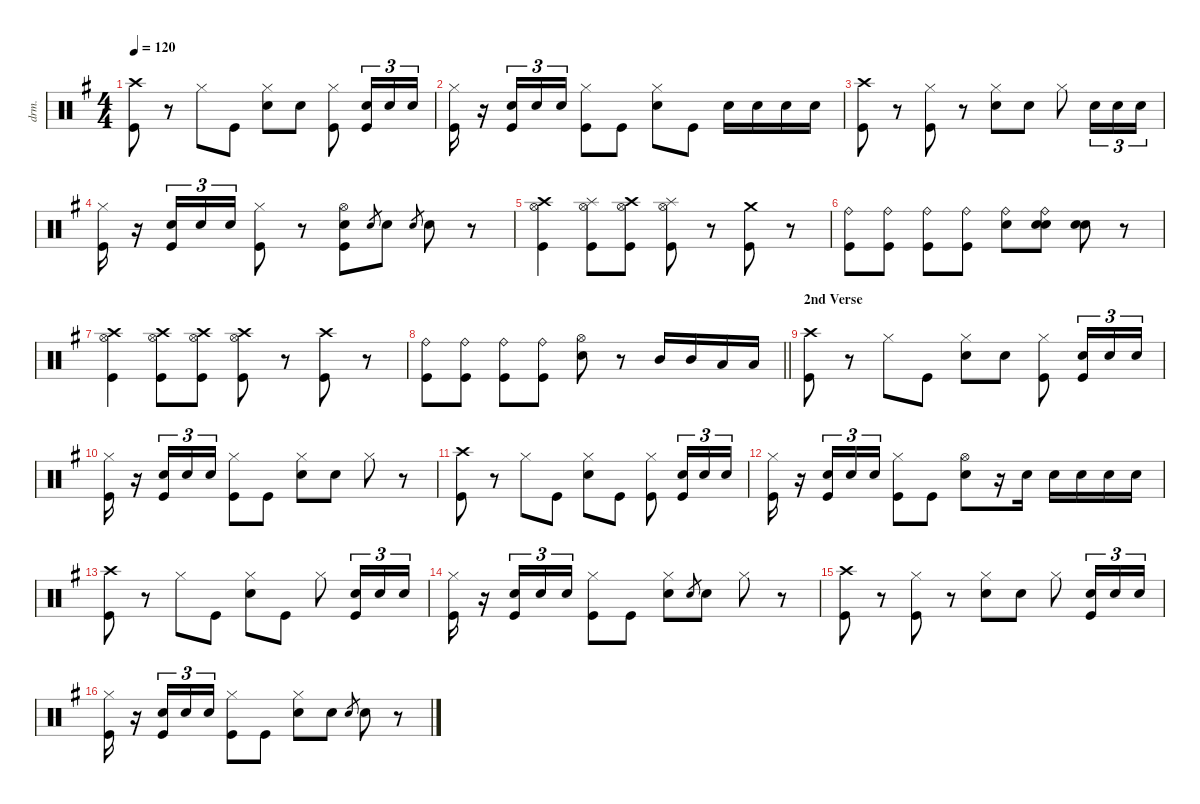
\defaultSystemsLayout 4
\hideDynamics
\bracketExtendMode nobrackets
\track ("Drums (Bill Ward)" "drm.") {instrument percussion}
\staff {score}
\articulation defaults
\ts (4 4)
\tempo 120
\clef neutral
\ks g
("Crash high (hit)"{acc forcenatural} "Kick (hit)"{acc forcenatural}).8{dy f} r.8 "Hi-Hat (closed)"{acc forcenatural}.8 "Kick (hit)"{acc forcenatural}.8 ("Hi-Hat (closed)"{acc forcenatural} "Snare (hit) 2"{acc forcenatural}).8 "Snare (hit) 2"{acc forcenatural}.8 ("Hi-Hat (closed)"{acc forcenatural} "Kick (hit)"{acc forcenatural}).8 ("Snare (hit) 2"{acc forcenatural} "Kick (hit)"{acc forcenatural}).16{tu (3 2) dy p} "Snare (hit) 2"{acc forcenatural}.16{tu (3 2)} "Snare (hit) 2"{acc forcenatural}.16{tu (3 2)} |
("Hi-Hat (closed)"{acc forcenatural} "Kick (hit)"{acc forcenatural}).16{dy f} r.16 ("Snare (hit) 2"{acc forcenatural} "Kick (hit)"{acc forcenatural}).16{tu (3 2) dy p} "Snare (hit) 2"{acc forcenatural}.16{tu (3 2)} "Snare (hit) 2"{acc forcenatural}.16{tu (3 2)} ("Hi-Hat (closed)"{acc forcenatural} "Kick (hit)"{acc forcenatural}).8{dy f} "Kick (hit)"{acc forcenatural}.8 ("Hi-Hat (closed)"{acc forcenatural} "Snare (hit) 2"{acc forcenatural}).8 "Kick (hit)"{acc forcenatural}.8 "Snare (hit) 2"{acc forcenatural}.16 "Snare (hit) 2"{acc forcenatural}.16 "Snare (hit) 2"{acc forcenatural}.16 "Snare (hit) 2"{acc forcenatural}.16 |
("Crash high (hit)"{acc forcenatural} "Kick (hit)"{acc forcenatural}).8 r.8 ("Hi-Hat (closed)"{acc forcenatural} "Kick (hit)"{acc forcenatural}).8 r.8 ("Hi-Hat (closed)"{acc forcenatural} "Snare (hit) 2"{acc forcenatural}).8 "Snare (hit) 2"{acc forcenatural}.8 "Hi-Hat (closed)"{acc forcenatural}.8 "Snare (hit) 2"{acc forcenatural}.16{tu (3 2) dy p} "Snare (hit) 2"{acc forcenatural}.16{tu (3 2)} "Snare (hit) 2"{acc forcenatural}.16{tu (3 2)} |
("Hi-Hat (closed)"{acc forcenatural} "Kick (hit)"{acc forcenatural}).16{dy f} r.16 ("Snare (hit) 2"{acc forcenatural} "Kick (hit)"{acc forcenatural}).16{tu (3 2) dy p} "Snare (hit) 2"{acc forcenatural}.16{tu (3 2)} "Snare (hit) 2"{acc forcenatural}.16{tu (3 2)} ("Hi-Hat (closed)"{acc forcenatural} "Kick (hit)"{acc forcenatural}).8{dy f} r.8 ("Hi-Hat (open)"{acc forcenatural} "Snare (hit) 2"{acc forcenatural} "Kick (hit)"{acc forcenatural}).8 "Electric Snare (hit)"{acc forcenatural}.8{gr dy mf} "Snare (hit) 2"{acc forcenatural}.8{dy f} "Electric Snare (hit)"{acc forcenatural}.8{gr dy mf} "Snare (hit) 2"{acc forcenatural}.8{dy f} r.8 |
("Crash high (hit)"{acc forcenatural} "Hi-Hat (open)"{acc forcenatural} "Kick (hit)"{acc forcenatural}).4 ("Splash (hit)"{acc forcenatural} "Hi-Hat (open)"{acc forcenatural} "Kick (hit)"{acc forcenatural}).8 ("Crash high (hit)"{acc forcenatural} "Hi-Hat (open)"{acc forcenatural} "Kick (hit)"{acc forcenatural}).8 ("Splash (hit)"{acc forcenatural} "Hi-Hat (open)"{acc forcenatural} "Kick (hit)"{acc forcenatural}).8 r.8 ("Crash medium (hit)"{acc forcenatural} "Kick (hit)"{acc forcenatural}).8 r.8 |
("Ride (bell)"{acc forcenatural} "Kick (hit)"{acc forcenatural}).8 ("Ride (bell)"{acc forcenatural} "Kick (hit)"{acc forcenatural}).8 ("Ride (bell)"{acc forcenatural} "Kick (hit)"{acc forcenatural}).8 ("Ride (bell)"{acc forcenatural} "Kick (hit)"{acc forcenatural}).8 ("Ride (bell)"{acc forcenatural} "Snare (hit) 2"{acc forcenatural}).8 ("Ride (bell)"{acc forcenatural} "Snare (hit) 2"{acc forcenatural} "Snare (hit) 2"{acc forcenatural}).8 ("Snare (hit) 2"{acc forcenatural} "Snare (hit) 2"{acc forcenatural}).8{dy ff} r.8 |
("Crash high (hit)"{acc forcenatural} "Hi-Hat (open)"{acc forcenatural} "Kick (hit)"{acc forcenatural}).4{dy f} ("Crash high (hit)"{acc forcenatural} "Hi-Hat (open)"{acc forcenatural} "Kick (hit)"{acc forcenatural}).8 ("Crash high (hit)"{acc forcenatural} "Hi-Hat (open)"{acc forcenatural} "Kick (hit)"{acc forcenatural}).8 ("Crash high (hit)"{acc forcenatural} "Hi-Hat (open)"{acc forcenatural} "Kick (hit)"{acc forcenatural}).8 r.8 ("Crash high (hit)"{acc forcenatural} "Kick (hit)"{acc forcenatural}).8 r.8 |
\barLineRight lightlight
("Ride (bell)"{acc forcenatural} "Kick (hit)"{acc forcenatural}).8 ("Ride (bell)"{acc forcenatural} "Kick (hit)"{acc forcenatural}).8 ("Ride (bell)"{acc forcenatural} "Kick (hit)"{acc forcenatural}).8 ("Ride (bell)"{acc forcenatural} "Kick (hit)"{acc forcenatural}).8 ("Hi-Hat (open)"{acc forcenatural} "Snare (hit) 2"{acc forcenatural}).8 r.8 "Mid Tom (hit)"{acc forcenatural}.16 "Mid Tom (hit)"{acc forcenatural}.16 "Low Tom (hit)"{acc forcenatural}.16 "Low Tom (hit)"{acc forcenatural}.16 |
\section ("" "2nd Verse")
("Crash high (hit)"{acc forcenatural} "Kick (hit)"{acc forcenatural}).8 r.8 "Hi-Hat (closed)"{acc forcenatural}.8 "Kick (hit)"{acc forcenatural}.8 ("Hi-Hat (closed)"{acc forcenatural} "Snare (hit) 2"{acc forcenatural}).8 "Snare (hit) 2"{acc forcenatural}.8 ("Hi-Hat (closed)"{acc forcenatural} "Kick (hit)"{acc forcenatural}).8 ("Snare (hit) 2"{acc forcenatural} "Kick (hit)"{acc forcenatural}).16{tu (3 2) dy p} "Snare (hit) 2"{acc forcenatural}.16{tu (3 2)} "Snare (hit) 2"{acc forcenatural}.16{tu (3 2)} |
("Hi-Hat (closed)"{acc forcenatural} "Kick (hit)"{acc forcenatural}).16{dy f} r.16 ("Snare (hit) 2"{acc forcenatural} "Kick (hit)"{acc forcenatural}).16{tu (3 2) dy p} "Snare (hit) 2"{acc forcenatural}.16{tu (3 2)} "Snare (hit) 2"{acc forcenatural}.16{tu (3 2)} ("Hi-Hat (closed)"{acc forcenatural} "Kick (hit)"{acc forcenatural}).8{dy f} "Kick (hit)"{acc forcenatural}.8 ("Hi-Hat (closed)"{acc forcenatural} "Snare (hit) 2"{acc forcenatural}).8 "Snare (hit) 2"{acc forcenatural}.8 "Hi-Hat (closed)"{acc forcenatural}.8 r.8 |
("Crash high (hit)"{acc forcenatural} "Kick (hit)"{acc forcenatural}).8 r.8 "Hi-Hat (closed)"{acc forcenatural}.8 "Kick (hit)"{acc forcenatural}.8 ("Hi-Hat (closed)"{acc forcenatural} "Snare (hit) 2"{acc forcenatural}).8 "Kick (hit)"{acc forcenatural}.8 ("Hi-Hat (closed)"{acc forcenatural} "Kick (hit)"{acc forcenatural}).8 ("Snare (hit) 2"{acc forcenatural} "Kick (hit)"{acc forcenatural}).16{tu (3 2) dy p} "Snare (hit) 2"{acc forcenatural}.16{tu (3 2)} "Snare (hit) 2"{acc forcenatural}.16{tu (3 2)} |
("Hi-Hat (closed)"{acc forcenatural} "Kick (hit)"{acc forcenatural}).16{dy f} r.16 ("Snare (hit) 2"{acc forcenatural} "Kick (hit)"{acc forcenatural}).16{tu (3 2) dy p} "Snare (hit) 2"{acc forcenatural}.16{tu (3 2)} "Snare (hit) 2"{acc forcenatural}.16{tu (3 2)} ("Hi-Hat (closed)"{acc forcenatural} "Kick (hit)"{acc forcenatural}).8{dy f} "Kick (hit)"{acc forcenatural}.8 ("Hi-Hat (open)"{acc forcenatural} "Snare (hit) 2"{acc forcenatural}).8 r.16 "Snare (hit) 2"{acc forcenatural}.16 "Snare (hit) 2"{acc forcenatural}.16 "Snare (hit) 2"{acc forcenatural}.16 "Snare (hit) 2"{acc forcenatural}.16 "Snare (hit) 2"{acc forcenatural}.16 |
("Crash high (hit)"{acc forcenatural} "Kick (hit)"{acc forcenatural}).8 r.8 "Hi-Hat (closed)"{acc forcenatural}.8 "Kick (hit)"{acc forcenatural}.8 ("Hi-Hat (closed)"{acc forcenatural} "Snare (hit) 2"{acc forcenatural}).8 "Kick (hit)"{acc forcenatural}.8 "Hi-Hat (closed)"{acc forcenatural}.8 ("Snare (hit) 2"{acc forcenatural} "Kick (hit)"{acc forcenatural}).16{tu (3 2) dy p} "Snare (hit) 2"{acc forcenatural}.16{tu (3 2)} "Snare (hit) 2"{acc forcenatural}.16{tu (3 2)} |
("Hi-Hat (closed)"{acc forcenatural} "Kick (hit)"{acc forcenatural}).16{dy f} r.16 ("Snare (hit) 2"{acc forcenatural} "Kick (hit)"{acc forcenatural}).16{tu (3 2) dy p} "Snare (hit) 2"{acc forcenatural}.16{tu (3 2)} "Snare (hit) 2"{acc forcenatural}.16{tu (3 2)} ("Hi-Hat (closed)"{acc forcenatural} "Kick (hit)"{acc forcenatural}).8{dy f} "Kick (hit)"{acc forcenatural}.8 ("Hi-Hat (closed)"{acc forcenatural} "Snare (hit) 2"{acc forcenatural}).8 "Electric Snare (hit)"{acc forcenatural}.8{gr dy mf} "Snare (hit) 2"{acc forcenatural}.8{dy f} "Hi-Hat (closed)"{acc forcenatural}.8 r.8 |
("Crash high (hit)"{acc forcenatural} "Kick (hit)"{acc forcenatural}).8 r.8 ("Hi-Hat (closed)"{acc forcenatural} "Kick (hit)"{acc forcenatural}).8 r.8 ("Hi-Hat (closed)"{acc forcenatural} "Snare (hit) 2"{acc forcenatural}).8 "Snare (hit) 2"{acc forcenatural}.8 "Hi-Hat (closed)"{acc forcenatural}.8 ("Snare (hit) 2"{acc forcenatural} "Kick (hit)"{acc forcenatural}).16{tu (3 2) dy p} "Snare (hit) 2"{acc forcenatural}.16{tu (3 2)} "Snare (hit) 2"{acc forcenatural}.16{tu (3 2)} |
("Hi-Hat (closed)"{acc forcenatural} "Kick (hit)"{acc forcenatural}).16{dy f} r.16 ("Snare (hit) 2"{acc forcenatural} "Kick (hit)"{acc forcenatural}).16{tu (3 2) dy p} "Snare (hit) 2"{acc forcenatural}.16{tu (3 2)} "Snare (hit) 2"{acc forcenatural}.16{tu (3 2)} ("Hi-Hat (closed)"{acc forcenatural} "Kick (hit)"{acc forcenatural}).8{dy f} "Kick (hit)"{acc forcenatural}.8 ("Hi-Hat (closed)"{acc forcenatural} "Snare (hit) 2"{acc forcenatural}).8 "Snare (hit) 2"{acc forcenatural}.8 "Electric Snare (hit)"{acc forcenatural}.8{gr dy mf} "Snare (hit) 2"{acc forcenatural}.8{dy f} r.8
